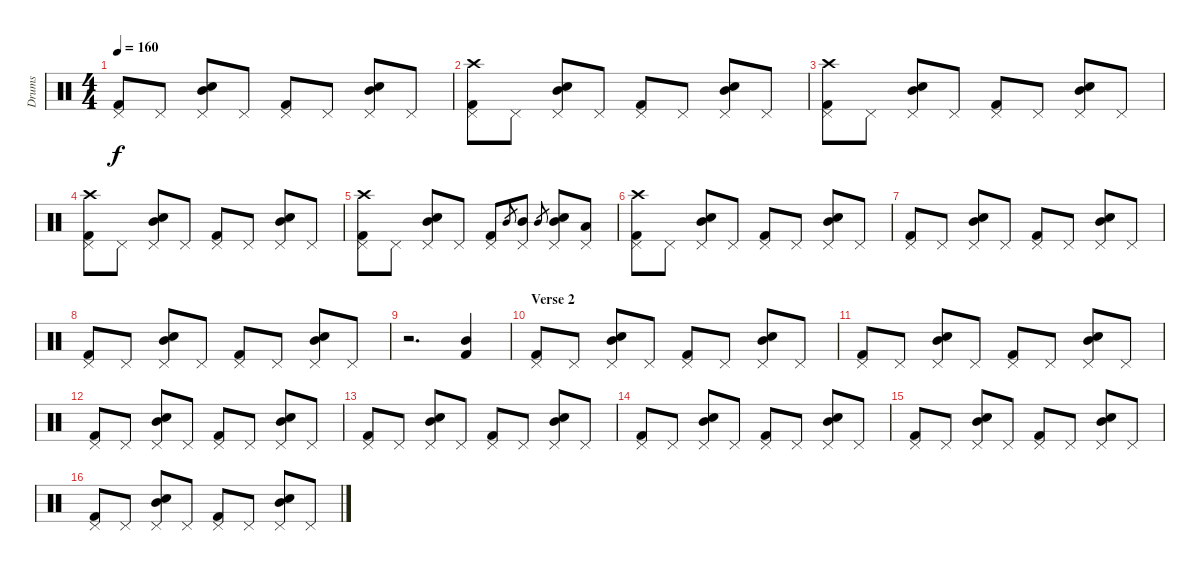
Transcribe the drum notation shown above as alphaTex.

\track ("Drums" "Drums") {instrument percussion}
\staff {score}
\articulation defaults
\ts (4 4)
\tempo 160
\clef neutral
\ks c
("Kick (hit) 2" "Pedal Hi-Hat (hit)").8{dy f} "Pedal Hi-Hat (hit)".8 ("Snare (hit) 2" "Pedal Hi-Hat (hit)" "Mid Tom (hit)").8 "Pedal Hi-Hat (hit)".8 ("Kick (hit) 2" "Pedal Hi-Hat (hit)").8 "Pedal Hi-Hat (hit)".8 ("Snare (hit) 2" "Pedal Hi-Hat (hit)" "Mid Tom (hit)").8 "Pedal Hi-Hat (hit)".8 |
("Kick (hit) 2" "Pedal Hi-Hat (hit)" "Crash high (hit)").8 "Pedal Hi-Hat (hit)".8 ("Snare (hit) 2" "Pedal Hi-Hat (hit)" "Mid Tom (hit)").8 "Pedal Hi-Hat (hit)".8 ("Kick (hit) 2" "Pedal Hi-Hat (hit)").8 "Pedal Hi-Hat (hit)".8 ("Snare (hit) 2" "Pedal Hi-Hat (hit)" "Mid Tom (hit)").8 "Pedal Hi-Hat (hit)".8 |
("Kick (hit) 2" "Pedal Hi-Hat (hit)" "Crash high (hit)").8 "Pedal Hi-Hat (hit)".8 ("Snare (hit) 2" "Pedal Hi-Hat (hit)" "Mid Tom (hit)").8 "Pedal Hi-Hat (hit)".8 ("Kick (hit) 2" "Pedal Hi-Hat (hit)").8 "Pedal Hi-Hat (hit)".8 ("Snare (hit) 2" "Pedal Hi-Hat (hit)" "Mid Tom (hit)").8 "Pedal Hi-Hat (hit)".8 |
("Kick (hit) 2" "Pedal Hi-Hat (hit)" "Crash high (hit)").8 "Pedal Hi-Hat (hit)".8 ("Snare (hit) 2" "Pedal Hi-Hat (hit)" "Mid Tom (hit)").8 "Pedal Hi-Hat (hit)".8 ("Kick (hit) 2" "Pedal Hi-Hat (hit)").8 "Pedal Hi-Hat (hit)".8 ("Snare (hit) 2" "Pedal Hi-Hat (hit)" "Mid Tom (hit)").8 "Pedal Hi-Hat (hit)".8 |
("Kick (hit) 2" "Pedal Hi-Hat (hit)" "Crash high (hit)").8 "Pedal Hi-Hat (hit)".8 ("Snare (hit) 2" "Pedal Hi-Hat (hit)" "Mid Tom (hit)").8 "Pedal Hi-Hat (hit)".8 ("Kick (hit) 2" "Pedal Hi-Hat (hit)").8 "Mid Tom (hit)".8{gr} ("Pedal Hi-Hat (hit)" "Mid Tom (hit)").8 "Mid Tom (hit)".8{gr} ("Snare (hit) 2" "Pedal Hi-Hat (hit)" "Mid Tom (hit)").8 ("Pedal Hi-Hat (hit)" "Low Tom (hit)").8 |
("Kick (hit) 2" "Pedal Hi-Hat (hit)" "Crash high (hit)").8 "Pedal Hi-Hat (hit)".8 ("Snare (hit) 2" "Pedal Hi-Hat (hit)" "Mid Tom (hit)").8 "Pedal Hi-Hat (hit)".8 ("Kick (hit) 2" "Pedal Hi-Hat (hit)").8 "Pedal Hi-Hat (hit)".8 ("Snare (hit) 2" "Pedal Hi-Hat (hit)" "Mid Tom (hit)").8 "Pedal Hi-Hat (hit)".8 |
("Kick (hit) 2" "Pedal Hi-Hat (hit)").8 "Pedal Hi-Hat (hit)".8 ("Snare (hit) 2" "Pedal Hi-Hat (hit)" "Mid Tom (hit)").8 "Pedal Hi-Hat (hit)".8 ("Kick (hit) 2" "Pedal Hi-Hat (hit)").8 "Pedal Hi-Hat (hit)".8 ("Snare (hit) 2" "Pedal Hi-Hat (hit)" "Mid Tom (hit)").8 "Pedal Hi-Hat (hit)".8 |
("Kick (hit) 2" "Pedal Hi-Hat (hit)").8 "Pedal Hi-Hat (hit)".8 ("Snare (hit) 2" "Pedal Hi-Hat (hit)" "Mid Tom (hit)").8 "Pedal Hi-Hat (hit)".8 ("Kick (hit) 2" "Pedal Hi-Hat (hit)").8 "Pedal Hi-Hat (hit)".8 ("Snare (hit) 2" "Pedal Hi-Hat (hit)" "Mid Tom (hit)").8 "Pedal Hi-Hat (hit)".8 |
r.2{d} ("Kick (hit) 2" "Mid Tom (hit)").4 |
\section ("" "Verse 2")
("Kick (hit) 2" "Pedal Hi-Hat (hit)").8 "Pedal Hi-Hat (hit)".8 ("Snare (hit) 2" "Pedal Hi-Hat (hit)" "Mid Tom (hit)").8 "Pedal Hi-Hat (hit)".8 ("Kick (hit) 2" "Pedal Hi-Hat (hit)").8 "Pedal Hi-Hat (hit)".8 ("Snare (hit) 2" "Pedal Hi-Hat (hit)" "Mid Tom (hit)").8 "Pedal Hi-Hat (hit)".8 |
("Kick (hit) 2" "Pedal Hi-Hat (hit)").8 "Pedal Hi-Hat (hit)".8 ("Snare (hit) 2" "Pedal Hi-Hat (hit)" "Mid Tom (hit)").8 "Pedal Hi-Hat (hit)".8 ("Kick (hit) 2" "Pedal Hi-Hat (hit)").8 "Pedal Hi-Hat (hit)".8 ("Snare (hit) 2" "Pedal Hi-Hat (hit)" "Mid Tom (hit)").8 "Pedal Hi-Hat (hit)".8 |
("Kick (hit) 2" "Pedal Hi-Hat (hit)").8 "Pedal Hi-Hat (hit)".8 ("Snare (hit) 2" "Pedal Hi-Hat (hit)" "Mid Tom (hit)").8 "Pedal Hi-Hat (hit)".8 ("Kick (hit) 2" "Pedal Hi-Hat (hit)").8 "Pedal Hi-Hat (hit)".8 ("Snare (hit) 2" "Pedal Hi-Hat (hit)" "Mid Tom (hit)").8 "Pedal Hi-Hat (hit)".8 |
("Kick (hit) 2" "Pedal Hi-Hat (hit)").8 "Pedal Hi-Hat (hit)".8 ("Snare (hit) 2" "Pedal Hi-Hat (hit)" "Mid Tom (hit)").8 "Pedal Hi-Hat (hit)".8 ("Kick (hit) 2" "Pedal Hi-Hat (hit)").8 "Pedal Hi-Hat (hit)".8 ("Snare (hit) 2" "Pedal Hi-Hat (hit)" "Mid Tom (hit)").8 "Pedal Hi-Hat (hit)".8 |
("Kick (hit) 2" "Pedal Hi-Hat (hit)").8 "Pedal Hi-Hat (hit)".8 ("Snare (hit) 2" "Pedal Hi-Hat (hit)" "Mid Tom (hit)").8 "Pedal Hi-Hat (hit)".8 ("Kick (hit) 2" "Pedal Hi-Hat (hit)").8 "Pedal Hi-Hat (hit)".8 ("Snare (hit) 2" "Pedal Hi-Hat (hit)" "Mid Tom (hit)").8 "Pedal Hi-Hat (hit)".8 |
("Kick (hit) 2" "Pedal Hi-Hat (hit)").8 "Pedal Hi-Hat (hit)".8 ("Snare (hit) 2" "Pedal Hi-Hat (hit)" "Mid Tom (hit)").8 "Pedal Hi-Hat (hit)".8 ("Kick (hit) 2" "Pedal Hi-Hat (hit)").8 "Pedal Hi-Hat (hit)".8 ("Snare (hit) 2" "Pedal Hi-Hat (hit)" "Mid Tom (hit)").8 "Pedal Hi-Hat (hit)".8 |
("Kick (hit) 2" "Pedal Hi-Hat (hit)").8 "Pedal Hi-Hat (hit)".8 ("Snare (hit) 2" "Pedal Hi-Hat (hit)" "Mid Tom (hit)").8 "Pedal Hi-Hat (hit)".8 ("Kick (hit) 2" "Pedal Hi-Hat (hit)").8 "Pedal Hi-Hat (hit)".8 ("Snare (hit) 2" "Pedal Hi-Hat (hit)" "Mid Tom (hit)").8 "Pedal Hi-Hat (hit)".8
